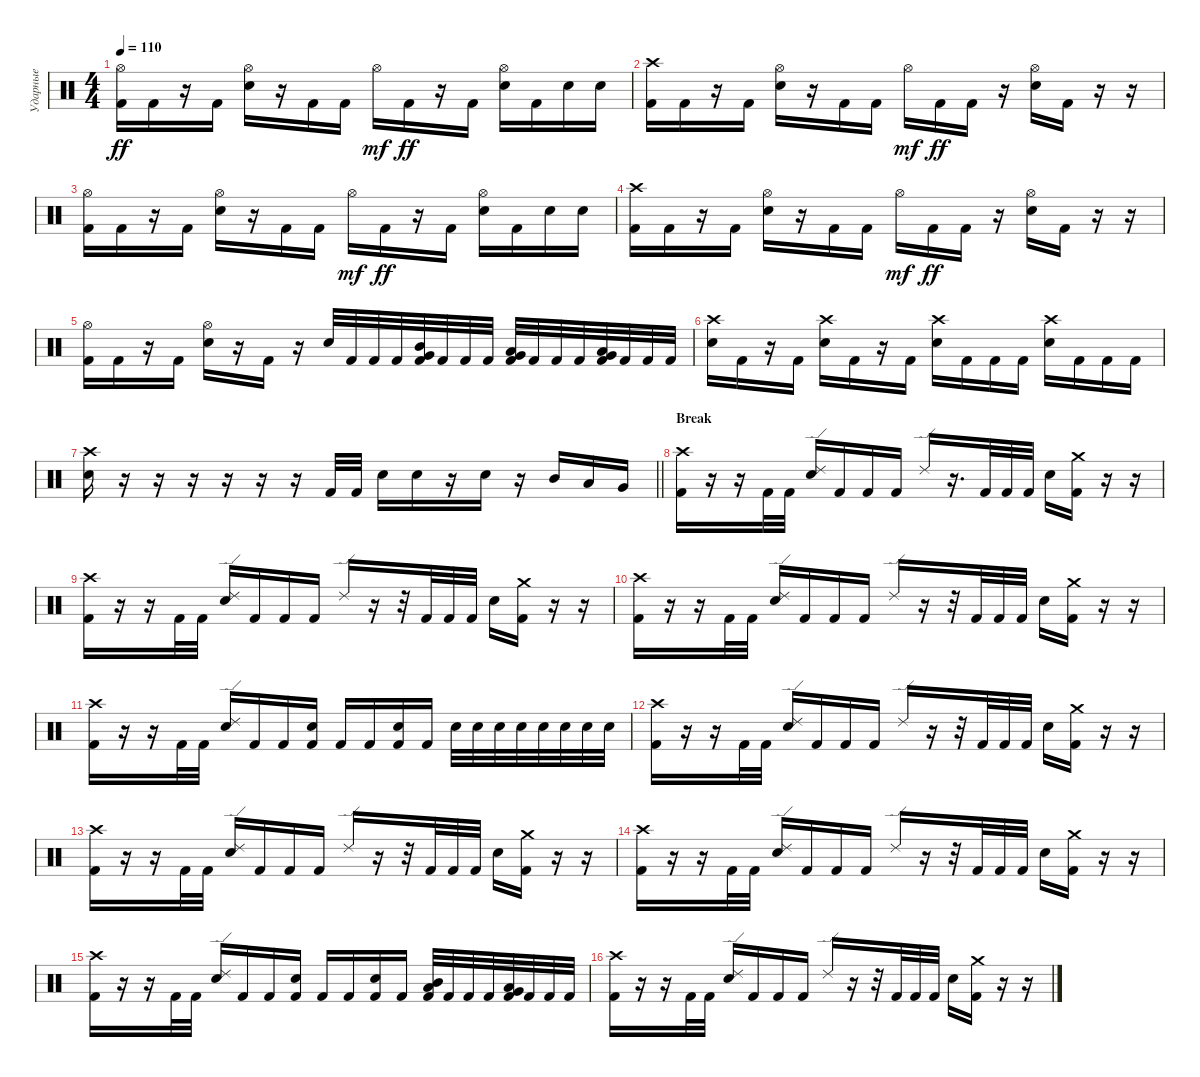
\track ("Ударные" "Ударные") {instrument percussion}
\staff {score}
\articulation defaults
\ts (4 4)
\tempo 110
\clef neutral
\ks c
("Hi-Hat (open)" "Kick (hit) 2").16{dy ff} "Kick (hit) 2".16 r.16 "Kick (hit) 2".16 ("Hi-Hat (open)" "Snare (hit) 2").16 r.16 "Kick (hit) 2".16 "Kick (hit) 2".16 "Hi-Hat (open)".16{dy mf} "Kick (hit) 2".16{dy ff} r.16 "Kick (hit) 2".16 ("Hi-Hat (open)" "Snare (hit) 2").16 "Kick (hit) 2".16 "Snare (hit) 2".16 "Snare (hit) 2".16 |
("Crash high (hit)" "Kick (hit) 2").16 "Kick (hit) 2".16 r.16 "Kick (hit) 2".16 ("Hi-Hat (open)" "Snare (hit) 2").16 r.16 "Kick (hit) 2".16 "Kick (hit) 2".16 "Hi-Hat (open)".16{dy mf} "Kick (hit) 2".16{dy ff} "Kick (hit) 2".16 r.16 ("Hi-Hat (open)" "Snare (hit) 2").16 "Kick (hit) 2".16 r.16 r.16 |
("Hi-Hat (open)" "Kick (hit) 2").16 "Kick (hit) 2".16 r.16 "Kick (hit) 2".16 ("Hi-Hat (open)" "Snare (hit) 2").16 r.16 "Kick (hit) 2".16 "Kick (hit) 2".16 "Hi-Hat (open)".16{dy mf} "Kick (hit) 2".16{dy ff} r.16 "Kick (hit) 2".16 ("Hi-Hat (open)" "Snare (hit) 2").16 "Kick (hit) 2".16 "Snare (hit) 2".16 "Snare (hit) 2".16 |
("Crash high (hit)" "Kick (hit) 2").16 "Kick (hit) 2".16 r.16 "Kick (hit) 2".16 ("Hi-Hat (open)" "Snare (hit) 2").16 r.16 "Kick (hit) 2".16 "Kick (hit) 2".16 "Hi-Hat (open)".16{dy mf} "Kick (hit) 2".16{dy ff} "Kick (hit) 2".16 r.16 ("Hi-Hat (open)" "Snare (hit) 2").16 "Kick (hit) 2".16 r.16 r.16 |
("Hi-Hat (open)" "Kick (hit) 2").16 "Kick (hit) 2".16 r.16 "Kick (hit) 2".16 ("Hi-Hat (open)" "Snare (hit) 2").16 r.16 "Kick (hit) 2".16 r.16 "Snare (hit) 2".32 "Kick (hit) 2".32 "Kick (hit) 2".32 "Kick (hit) 2".32 ("Mid Tom (hit)" "Very Low Tom (hit)" "Kick (hit) 2").32 "Kick (hit) 2".32 "Kick (hit) 2".32 "Kick (hit) 2".32 ("Low Tom (hit)" "Very Low Tom (hit)" "Kick (hit) 2").32 "Kick (hit) 2".32 "Kick (hit) 2".32 "Kick (hit) 2".32 ("Very Low Tom (hit)" "Low Floor Tom (hit)" "Kick (hit) 2").32 "Kick (hit) 2".32 "Kick (hit) 2".32 "Kick (hit) 2".32 |
("Crash high (hit)" "Snare (hit) 2").16 "Kick (hit) 2".16 r.16 "Kick (hit) 2".16 ("Crash high (hit)" "Snare (hit) 2").16 "Kick (hit) 2".16 r.16 "Kick (hit) 2".16 ("Crash high (hit)" "Snare (hit) 2").16 "Kick (hit) 2".16 "Kick (hit) 2".16 "Kick (hit) 2".16 ("Crash high (hit)" "Snare (hit) 2").16 "Kick (hit) 2".16 "Kick (hit) 2".16 "Kick (hit) 2".16 |
\barLineRight lightlight
("Crash high (hit)" "Snare (hit) 2").16 r.16 r.16 r.16 r.16 r.16 r.16 "Kick (hit) 2".32 "Kick (hit) 2".32 "Snare (hit) 2".16 "Snare (hit) 2".16 r.16 "Snare (hit) 2".16 r.16 "Mid Tom (hit)".16 "Low Tom (hit)".16 "Very Low Tom (hit)".16 |
\section ("" "Break")
("Crash high (hit)" "Kick (hit) 2").16 r.16 r.16 "Kick (hit) 2".32 "Kick (hit) 2".32 ("Ride (edge) 2" "Snare (hit) 2").16 "Kick (hit) 2".16 "Kick (hit) 2".16 "Kick (hit) 2".16 "Ride (edge) 2".16 r.16{d} "Kick (hit) 2".32 "Kick (hit) 2".32 "Kick (hit) 2".32 "Snare (hit) 2".16 ("Crash medium (hit)" "Kick (hit) 2").16 r.16 r.16 |
("Crash high (hit)" "Kick (hit) 2").16 r.16 r.16 "Kick (hit) 2".32 "Kick (hit) 2".32 ("Ride (edge) 2" "Snare (hit) 2").16 "Kick (hit) 2".16 "Kick (hit) 2".16 "Kick (hit) 2".16 "Ride (edge) 2".16 r.16 r.32 "Kick (hit) 2".32 "Kick (hit) 2".32 "Kick (hit) 2".32 "Snare (hit) 2".16 ("Crash medium (hit)" "Kick (hit) 2").16 r.16 r.16 |
("Crash high (hit)" "Kick (hit) 2").16 r.16 r.16 "Kick (hit) 2".32 "Kick (hit) 2".32 ("Ride (edge) 2" "Snare (hit) 2").16 "Kick (hit) 2".16 "Kick (hit) 2".16 "Kick (hit) 2".16 "Ride (edge) 2".16 r.16 r.32 "Kick (hit) 2".32 "Kick (hit) 2".32 "Kick (hit) 2".32 "Snare (hit) 2".16 ("Crash medium (hit)" "Kick (hit) 2").16 r.16 r.16 |
("Crash high (hit)" "Kick (hit) 2").16 r.16 r.16 "Kick (hit) 2".32 "Kick (hit) 2".32 ("Ride (edge) 2" "Snare (hit) 2").16 "Kick (hit) 2".16 "Kick (hit) 2".16 ("Snare (hit) 2" "Kick (hit) 2").16 "Kick (hit) 2".16 "Kick (hit) 2".16 ("Snare (hit) 2" "Kick (hit) 2").16 "Kick (hit) 2".16 "Snare (hit) 2".32 "Snare (hit) 2".32 "Snare (hit) 2".32 "Snare (hit) 2".32 "Snare (hit) 2".32 "Snare (hit) 2".32 "Snare (hit) 2".32 "Snare (hit) 2".32 |
("Crash high (hit)" "Kick (hit) 2").16 r.16 r.16 "Kick (hit) 2".32 "Kick (hit) 2".32 ("Ride (edge) 2" "Snare (hit) 2").16 "Kick (hit) 2".16 "Kick (hit) 2".16 "Kick (hit) 2".16 "Ride (edge) 2".16 r.16 r.32 "Kick (hit) 2".32 "Kick (hit) 2".32 "Kick (hit) 2".32 "Snare (hit) 2".16 ("Crash medium (hit)" "Kick (hit) 2").16 r.16 r.16 |
("Crash high (hit)" "Kick (hit) 2").16 r.16 r.16 "Kick (hit) 2".32 "Kick (hit) 2".32 ("Ride (edge) 2" "Snare (hit) 2").16 "Kick (hit) 2".16 "Kick (hit) 2".16 "Kick (hit) 2".16 "Ride (edge) 2".16 r.16 r.32 "Kick (hit) 2".32 "Kick (hit) 2".32 "Kick (hit) 2".32 "Snare (hit) 2".16 ("Crash medium (hit)" "Kick (hit) 2").16 r.16 r.16 |
("Crash high (hit)" "Kick (hit) 2").16 r.16 r.16 "Kick (hit) 2".32 "Kick (hit) 2".32 ("Ride (edge) 2" "Snare (hit) 2").16 "Kick (hit) 2".16 "Kick (hit) 2".16 "Kick (hit) 2".16 "Ride (edge) 2".16 r.16 r.32 "Kick (hit) 2".32 "Kick (hit) 2".32 "Kick (hit) 2".32 "Snare (hit) 2".16 ("Crash medium (hit)" "Kick (hit) 2").16 r.16 r.16 |
("Crash high (hit)" "Kick (hit) 2").16 r.16 r.16 "Kick (hit) 2".32 "Kick (hit) 2".32 ("Ride (edge) 2" "Snare (hit) 2").16 "Kick (hit) 2".16 "Kick (hit) 2".16 ("Snare (hit) 2" "Kick (hit) 2").16 "Kick (hit) 2".16 "Kick (hit) 2".16 ("Snare (hit) 2" "Kick (hit) 2").16 "Kick (hit) 2".16 ("Low Tom (hit)" "Mid Tom (hit)" "Kick (hit) 2").32 "Kick (hit) 2".32 "Kick (hit) 2".32 "Kick (hit) 2".32 ("Very Low Tom (hit)" "Low Tom (hit)" "Kick (hit) 2").32 "Kick (hit) 2".32 "Kick (hit) 2".32 "Kick (hit) 2".32 |
("Crash high (hit)" "Kick (hit) 2").16 r.16 r.16 "Kick (hit) 2".32 "Kick (hit) 2".32 ("Ride (edge) 2" "Snare (hit) 2").16 "Kick (hit) 2".16 "Kick (hit) 2".16 "Kick (hit) 2".16 "Ride (edge) 2".16 r.16 r.32 "Kick (hit) 2".32 "Kick (hit) 2".32 "Kick (hit) 2".32 "Snare (hit) 2".16 ("Crash medium (hit)" "Kick (hit) 2").16 r.16 r.16
